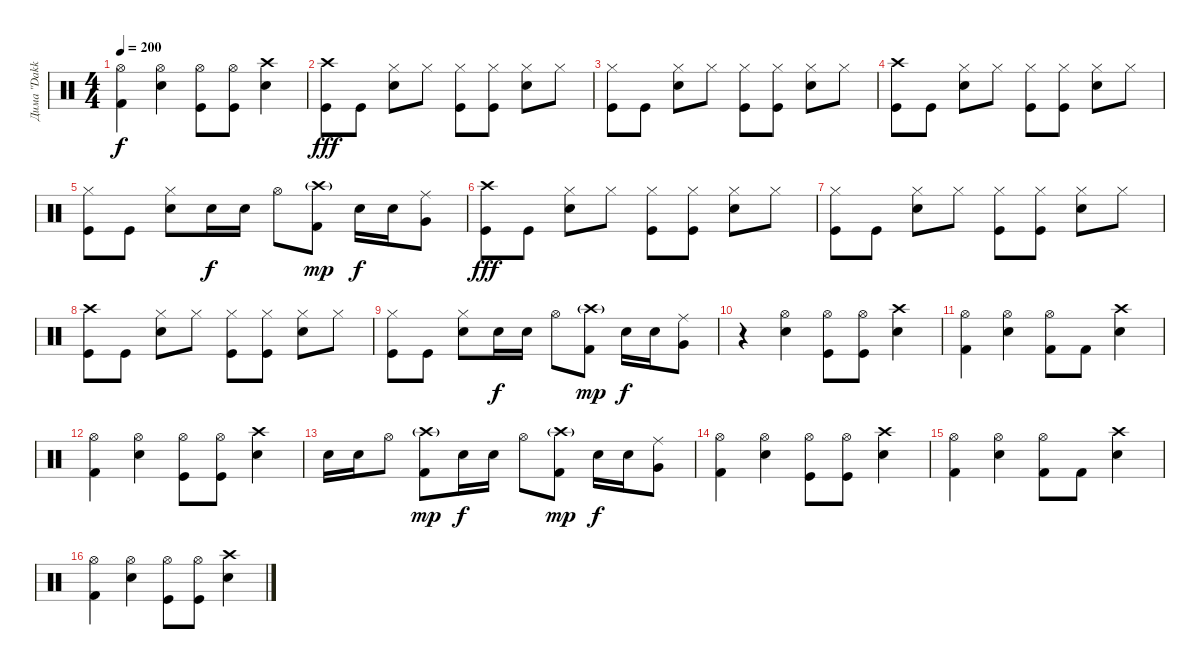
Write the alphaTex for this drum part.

\track ("Дима \"Dakkar\" Кеменов" "Дима \"Dakk") {instrument percussion}
\staff
\articulation defaults
\ts (4 4)
\tempo 200
\clef neutral
\ks c
("Hi-Hat (open)" "Kick (hit) 2").4{dy f} ("Hi-Hat (open)" "Electric Snare (hit)").4 ("Hi-Hat (open)" "Kick (hit)").8 ("Hi-Hat (open)" "Kick (hit)").8 ("Crash high (hit)" "Electric Snare (hit)").4 |
("Crash high (hit)" "Kick (hit)").8{dy fff} "Kick (hit)".8 ("Hi-Hat (closed)" "Snare (hit) 2").8 "Hi-Hat (closed)".8 ("Hi-Hat (closed)" "Kick (hit)").8 ("Hi-Hat (closed)" "Kick (hit)").8 ("Hi-Hat (closed)" "Snare (hit) 2").8 "Hi-Hat (closed)".8 |
("Hi-Hat (closed)" "Kick (hit)").8 "Kick (hit)".8 ("Hi-Hat (closed)" "Snare (hit) 2").8 "Hi-Hat (closed)".8 ("Hi-Hat (closed)" "Kick (hit)").8 ("Hi-Hat (closed)" "Kick (hit)").8 ("Hi-Hat (closed)" "Snare (hit) 2").8 "Hi-Hat (closed)".8 |
("Crash high (hit)" "Kick (hit)").8 "Kick (hit)".8 ("Hi-Hat (closed)" "Snare (hit) 2").8 "Hi-Hat (closed)".8 ("Hi-Hat (closed)" "Kick (hit)").8 ("Hi-Hat (closed)" "Kick (hit)").8 ("Hi-Hat (closed)" "Snare (hit) 2").8 "Hi-Hat (closed)".8 |
("Hi-Hat (closed)" "Kick (hit)").8 "Kick (hit)".8 ("Hi-Hat (closed)" "Snare (hit) 2").8 "Electric Snare (hit)".16{dy f} "Electric Snare (hit)".16 "Hi-Hat (open)".8 ("Crash high (hit)"{g} "Kick (hit) 2").8{dy mp} "Electric Snare (hit)".16{dy f} "Electric Snare (hit)".16 ("Ride (middle)" "Very Low Tom (hit)").8 |
("Crash high (hit)" "Kick (hit)").8{dy fff} "Kick (hit)".8 ("Hi-Hat (closed)" "Snare (hit) 2").8 "Hi-Hat (closed)".8 ("Hi-Hat (closed)" "Kick (hit)").8 ("Hi-Hat (closed)" "Kick (hit)").8 ("Hi-Hat (closed)" "Snare (hit) 2").8 "Hi-Hat (closed)".8 |
("Hi-Hat (closed)" "Kick (hit)").8 "Kick (hit)".8 ("Hi-Hat (closed)" "Snare (hit) 2").8 "Hi-Hat (closed)".8 ("Hi-Hat (closed)" "Kick (hit)").8 ("Hi-Hat (closed)" "Kick (hit)").8 ("Hi-Hat (closed)" "Snare (hit) 2").8 "Hi-Hat (closed)".8 |
("Crash high (hit)" "Kick (hit)").8 "Kick (hit)".8 ("Hi-Hat (closed)" "Snare (hit) 2").8 "Hi-Hat (closed)".8 ("Hi-Hat (closed)" "Kick (hit)").8 ("Hi-Hat (closed)" "Kick (hit)").8 ("Hi-Hat (closed)" "Snare (hit) 2").8 "Hi-Hat (closed)".8 |
("Hi-Hat (closed)" "Kick (hit)").8 "Kick (hit)".8 ("Hi-Hat (closed)" "Snare (hit) 2").8 "Electric Snare (hit)".16{dy f} "Electric Snare (hit)".16 "Hi-Hat (open)".8 ("Crash high (hit)"{g} "Kick (hit) 2").8{dy mp} "Electric Snare (hit)".16{dy f} "Electric Snare (hit)".16 ("Ride (middle)" "Very Low Tom (hit)").8 |
r.4 ("Hi-Hat (open)" "Electric Snare (hit)").4 ("Hi-Hat (open)" "Kick (hit)").8 ("Hi-Hat (open)" "Kick (hit)").8 ("Crash high (hit)" "Electric Snare (hit)").4 |
("Hi-Hat (open)" "Kick (hit) 2").4 ("Hi-Hat (open)" "Electric Snare (hit)").4 ("Hi-Hat (open)" "Kick (hit) 2").8 "Kick (hit) 2".8 ("Crash high (hit)" "Electric Snare (hit)").4 |
("Hi-Hat (open)" "Kick (hit) 2").4 ("Hi-Hat (open)" "Electric Snare (hit)").4 ("Hi-Hat (open)" "Kick (hit)").8 ("Hi-Hat (open)" "Kick (hit)").8 ("Crash high (hit)" "Electric Snare (hit)").4 |
"Electric Snare (hit)".16 "Electric Snare (hit)".16 "Hi-Hat (open)".8 ("Crash high (hit)"{g} "Kick (hit) 2").8{dy mp} "Electric Snare (hit)".16{dy f} "Electric Snare (hit)".16 "Hi-Hat (open)".8 ("Crash high (hit)"{g} "Kick (hit) 2").8{dy mp} "Electric Snare (hit)".16{dy f} "Electric Snare (hit)".16 ("Ride (middle)" "Very Low Tom (hit)").8 |
("Hi-Hat (open)" "Kick (hit) 2").4 ("Hi-Hat (open)" "Electric Snare (hit)").4 ("Hi-Hat (open)" "Kick (hit)").8 ("Hi-Hat (open)" "Kick (hit)").8 ("Crash high (hit)" "Electric Snare (hit)").4 |
("Hi-Hat (open)" "Kick (hit) 2").4 ("Hi-Hat (open)" "Electric Snare (hit)").4 ("Hi-Hat (open)" "Kick (hit) 2").8 "Kick (hit) 2".8 ("Crash high (hit)" "Electric Snare (hit)").4 |
("Hi-Hat (open)" "Kick (hit) 2").4 ("Hi-Hat (open)" "Electric Snare (hit)").4 ("Hi-Hat (open)" "Kick (hit)").8 ("Hi-Hat (open)" "Kick (hit)").8 ("Crash high (hit)" "Electric Snare (hit)").4
